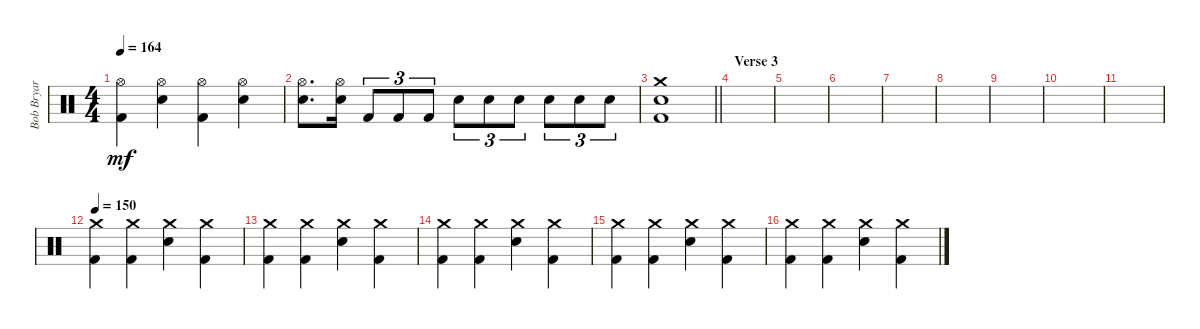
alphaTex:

\track ("Bob Bryar" "Bob Bryar") {instrument percussion}
\staff {score}
\articulation defaults
\ts (4 4)
\tempo 164
\clef neutral
\ks c
("Hi-Hat (open)" "Kick (hit) 2").4{dy mf} ("Hi-Hat (open)" "Electric Snare (hit)").4 ("Hi-Hat (open)" "Kick (hit) 2").4 ("Hi-Hat (open)" "Electric Snare (hit)").4 |
("Hi-Hat (open)" "Snare (hit) 2").8{d} ("Hi-Hat (open)" "Snare (hit) 2").16 "Kick (hit) 2".8{tu (3 2)} "Kick (hit) 2".8{tu (3 2)} "Kick (hit) 2".8{tu (3 2)} "Electric Snare (hit)".8{tu (3 2)} "Electric Snare (hit)".8{tu (3 2)} "Electric Snare (hit)".8{tu (3 2)} "Electric Snare (hit)".8{tu (3 2)} "Electric Snare (hit)".8{tu (3 2)} "Electric Snare (hit)".8{tu (3 2)} |
\barLineRight lightlight
("Crash medium (hit)" "Electric Snare (hit)" "Kick (hit) 2").1 |
\section ("" "Verse 3")
|
|
|
|
|
|
|
|
\tempo 150
("Crash medium (hit)" "Kick (hit) 2").4 ("Crash medium (hit)" "Kick (hit) 2").4 ("Crash medium (hit)" "Electric Snare (hit)").4 ("Crash medium (hit)" "Kick (hit) 2").4 |
("Crash medium (hit)" "Kick (hit) 2").4 ("Crash medium (hit)" "Kick (hit) 2").4 ("Crash medium (hit)" "Electric Snare (hit)").4 ("Crash medium (hit)" "Kick (hit) 2").4 |
("Crash medium (hit)" "Kick (hit) 2").4 ("Crash medium (hit)" "Kick (hit) 2").4 ("Crash medium (hit)" "Electric Snare (hit)").4 ("Crash medium (hit)" "Kick (hit) 2").4 |
("Crash medium (hit)" "Kick (hit) 2").4 ("Crash medium (hit)" "Kick (hit) 2").4 ("Crash medium (hit)" "Electric Snare (hit)").4 ("Crash medium (hit)" "Kick (hit) 2").4 |
("Crash medium (hit)" "Kick (hit) 2").4 ("Crash medium (hit)" "Kick (hit) 2").4 ("Crash medium (hit)" "Electric Snare (hit)").4 ("Crash medium (hit)" "Kick (hit) 2").4
